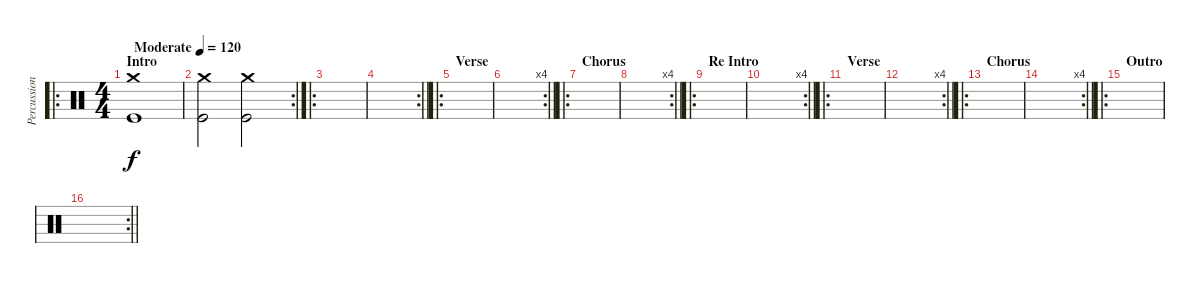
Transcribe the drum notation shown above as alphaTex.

\track ("Percussion" "Percussion") {instrument percussion}
\staff {score}
\articulation defaults
\ro
\ts (4 4)
\section ("" "Intro")
\tempo (120 "Moderate")
\clef neutral
\ks c
("Crash medium (hit)" "Kick (hit)").1{dy f} |
\rc 2
("Crash medium (hit)" "Kick (hit)").2 ("Crash medium (hit)" "Kick (hit)").2 |
\ro
|
\rc 2
\barLineRight lightlight
|
\ro
\section ("" "Verse")
|
\rc 4
\barLineRight lightlight
|
\ro
\section ("" "Chorus")
|
\rc 4
\barLineRight lightlight
|
\ro
\section ("" "Re Intro")
|
\rc 4
\barLineRight lightlight
|
\ro
\section ("" "Verse")
|
\rc 4
\barLineRight lightlight
|
\ro
\section ("" "Chorus")
|
\rc 4
\barLineRight lightlight
|
\ro
\section ("" "Outro")
|
\rc 2
\barLineRight lightlight
